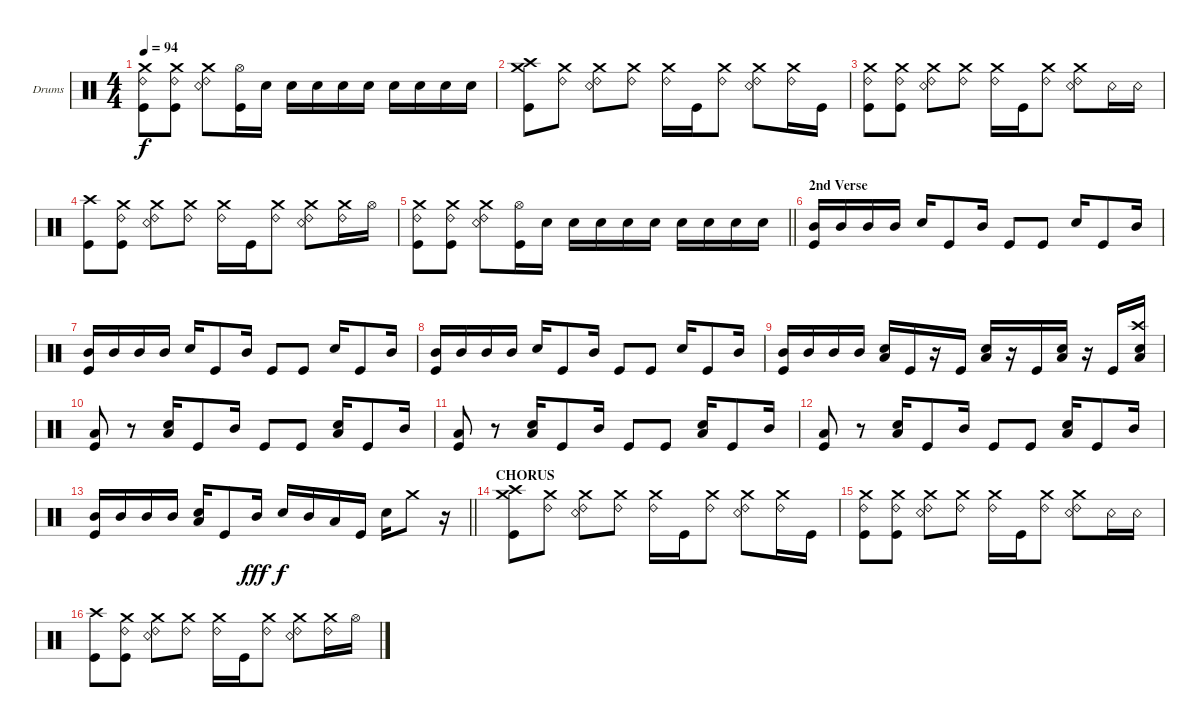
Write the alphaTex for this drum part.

\bracketExtendMode groupsimilarinstruments
\firstSystemTrackNameOrientation horizontal
\otherSystemsTrackNameOrientation horizontal
\track ("Drumkit" "Drums") {instrument percussion}
\staff {score}
\articulation defaults
\ts (4 4)
\tempo 94
\clef neutral
\ks c
("Crash medium (hit)" "Kick (hit)" "Ride (bell) 2").8{dy f} ("Crash medium (hit)" "Kick (hit)" "Ride (bell) 2").8 ("Crash medium (hit)" "Snare (rim shot)" "Ride (bell) 2").8 ("Hi-Hat (open)" "Kick (hit)").16 "Snare (hit) 2".16 "Snare (hit) 2".16 "Snare (hit) 2".16 "Snare (hit) 2".16 "Snare (hit) 2".16 "Snare (hit) 2".16 "Snare (hit) 2".16 "Snare (hit) 2".16 "Snare (hit) 2".16 |
("Crash high (hit)" "Crash medium (hit)" "Kick (hit)").8 ("Crash medium (hit)" "Ride (bell) 2").8 ("Crash medium (hit)" "Snare (rim shot)" "Ride (bell) 2").8 ("Crash medium (hit)" "Ride (bell) 2").8 ("Crash medium (hit)" "Ride (bell) 2").16 "Kick (hit)".16 ("Crash medium (hit)" "Ride (bell) 2").8 ("Crash medium (hit)" "Snare (rim shot)" "Ride (bell) 2").8 ("Crash medium (hit)" "Ride (bell) 2").16 "Kick (hit)".16 |
("Crash medium (hit)" "Kick (hit)" "Ride (bell) 2").8 ("Crash medium (hit)" "Kick (hit)" "Ride (bell) 2").8 ("Crash medium (hit)" "Snare (rim shot)" "Ride (bell) 2").8 ("Crash medium (hit)" "Ride (bell) 2").8 ("Crash medium (hit)" "Ride (bell) 2").16 "Kick (hit)".16 ("Crash medium (hit)" "Ride (bell) 2").8 ("Crash medium (hit)" "Snare (rim shot)" "Ride (bell) 2").8 "Snare (rim shot)".16 "Snare (rim shot)".16 |
("Crash high (hit)" "Kick (hit)").8 ("Crash medium (hit)" "Kick (hit)" "Ride (bell) 2").8 ("Crash medium (hit)" "Ride (bell) 2" "Snare (rim shot)").8 ("Crash medium (hit)" "Ride (bell) 2").8 ("Crash medium (hit)" "Ride (bell) 2").16 "Kick (hit)".16 ("Crash medium (hit)" "Ride (bell) 2").8 ("Crash medium (hit)" "Snare (rim shot)" "Ride (bell) 2").8 ("Crash medium (hit)" "Ride (bell) 2").16 "Hi-Hat (open)".16 |
\barLineRight lightlight
("Crash medium (hit)" "Kick (hit)" "Ride (bell) 2").8 ("Crash medium (hit)" "Kick (hit)" "Ride (bell) 2").8 ("Crash medium (hit)" "Snare (rim shot)" "Ride (bell) 2").8 ("Hi-Hat (open)" "Kick (hit)").16 "Snare (hit) 2".16 "Snare (hit) 2".16 "Snare (hit) 2".16 "Snare (hit) 2".16 "Snare (hit) 2".16 "Snare (hit) 2".16 "Snare (hit) 2".16 "Snare (hit) 2".16 "Snare (hit) 2".16 |
\section ("" "2nd Verse")
("Kick (hit)" "Mid Tom (hit)").16 "Mid Tom (hit)".16 "Mid Tom (hit)".16 "Mid Tom (hit)".16 "Snare (hit) 2".16 "Kick (hit)".8 "Mid Tom (hit)".16 "Kick (hit)".8 "Kick (hit)".8 "Snare (hit) 2".16 "Kick (hit)".8 "Mid Tom (hit)".16 |
("Kick (hit)" "Mid Tom (hit)").16 "Mid Tom (hit)".16 "Mid Tom (hit)".16 "Mid Tom (hit)".16 "Snare (hit) 2".16 "Kick (hit)".8 "Mid Tom (hit)".16 "Kick (hit)".8 "Kick (hit)".8 "Snare (hit) 2".16 "Kick (hit)".8 "Mid Tom (hit)".16 |
("Kick (hit)" "Mid Tom (hit)").16 "Mid Tom (hit)".16 "Mid Tom (hit)".16 "Mid Tom (hit)".16 "Snare (hit) 2".16 "Kick (hit)".8 "Mid Tom (hit)".16 "Kick (hit)".8 "Kick (hit)".8 "Snare (hit) 2".16 "Kick (hit)".8 "Mid Tom (hit)".16 |
("Kick (hit)" "Mid Tom (hit)").16 "Mid Tom (hit)".16 "Mid Tom (hit)".16 "Mid Tom (hit)".16 ("Snare (hit) 2" "Low Tom (hit)").16 "Kick (hit)".16 r.16 "Kick (hit)".16 ("Snare (hit) 2" "Low Tom (hit)").16 r.16 "Kick (hit)".16 ("Snare (hit) 2" "Low Tom (hit)").16 r.16 "Kick (hit)".16 ("Snare (hit) 2" "Low Tom (hit)" "Crash high (hit)").16 |
("Low Tom (hit)" "Kick (hit)").8 r.8 ("Snare (hit) 2" "Low Tom (hit)").16 "Kick (hit)".8 "Mid Tom (hit)".16 "Kick (hit)".8 "Kick (hit)".8 ("Snare (hit) 2" "Low Tom (hit)").16 "Kick (hit)".8 "Mid Tom (hit)".16 |
("Low Tom (hit)" "Kick (hit)").8 r.8 ("Snare (hit) 2" "Low Tom (hit)").16 "Kick (hit)".8 "Mid Tom (hit)".16 "Kick (hit)".8 "Kick (hit)".8 ("Snare (hit) 2" "Low Tom (hit)").16 "Kick (hit)".8 "Mid Tom (hit)".16 |
("Low Tom (hit)" "Kick (hit)").8 r.8 ("Snare (hit) 2" "Low Tom (hit)").16 "Kick (hit)".8 "Mid Tom (hit)".16 "Kick (hit)".8 "Kick (hit)".8 ("Snare (hit) 2" "Low Tom (hit)").16 "Kick (hit)".8 "Mid Tom (hit)".16 |
\barLineRight lightlight
("Kick (hit)" "Mid Tom (hit)").16 "Mid Tom (hit)".16 "Mid Tom (hit)".16 "Mid Tom (hit)".16 ("Snare (hit) 2" "Low Tom (hit)").16 "Kick (hit)".8 "Mid Tom (hit)".16{dy fff} "Snare (hit) 2".16{dy f} "Mid Tom (hit)".16 "Low Tom (hit)".16 "Kick (hit)".16 "Snare (hit) 2".16 "Crash medium (hit)".8 r.16 |
\section ("" "CHORUS")
("Crash high (hit)" "Crash medium (hit)" "Kick (hit)").8 ("Crash medium (hit)" "Ride (bell) 2").8 ("Crash medium (hit)" "Snare (rim shot)" "Ride (bell) 2").8 ("Crash medium (hit)" "Ride (bell) 2").8 ("Crash medium (hit)" "Ride (bell) 2").16 "Kick (hit)".16 ("Crash medium (hit)" "Ride (bell) 2").8 ("Crash medium (hit)" "Snare (rim shot)" "Ride (bell) 2").8 ("Crash medium (hit)" "Ride (bell) 2").16 "Kick (hit)".16 |
("Crash medium (hit)" "Kick (hit)" "Ride (bell) 2").8 ("Crash medium (hit)" "Kick (hit)" "Ride (bell) 2").8 ("Crash medium (hit)" "Snare (rim shot)" "Ride (bell) 2").8 ("Crash medium (hit)" "Ride (bell) 2").8 ("Crash medium (hit)" "Ride (bell) 2").16 "Kick (hit)".16 ("Crash medium (hit)" "Ride (bell) 2").8 ("Crash medium (hit)" "Snare (rim shot)" "Ride (bell) 2").8 "Snare (rim shot)".16 "Snare (rim shot)".16 |
("Crash high (hit)" "Kick (hit)").8 ("Crash medium (hit)" "Kick (hit)" "Ride (bell) 2").8 ("Crash medium (hit)" "Ride (bell) 2" "Snare (rim shot)").8 ("Crash medium (hit)" "Ride (bell) 2").8 ("Crash medium (hit)" "Ride (bell) 2").16 "Kick (hit)".16 ("Crash medium (hit)" "Ride (bell) 2").8 ("Crash medium (hit)" "Snare (rim shot)" "Ride (bell) 2").8 ("Crash medium (hit)" "Ride (bell) 2").16 "Hi-Hat (open)".16
